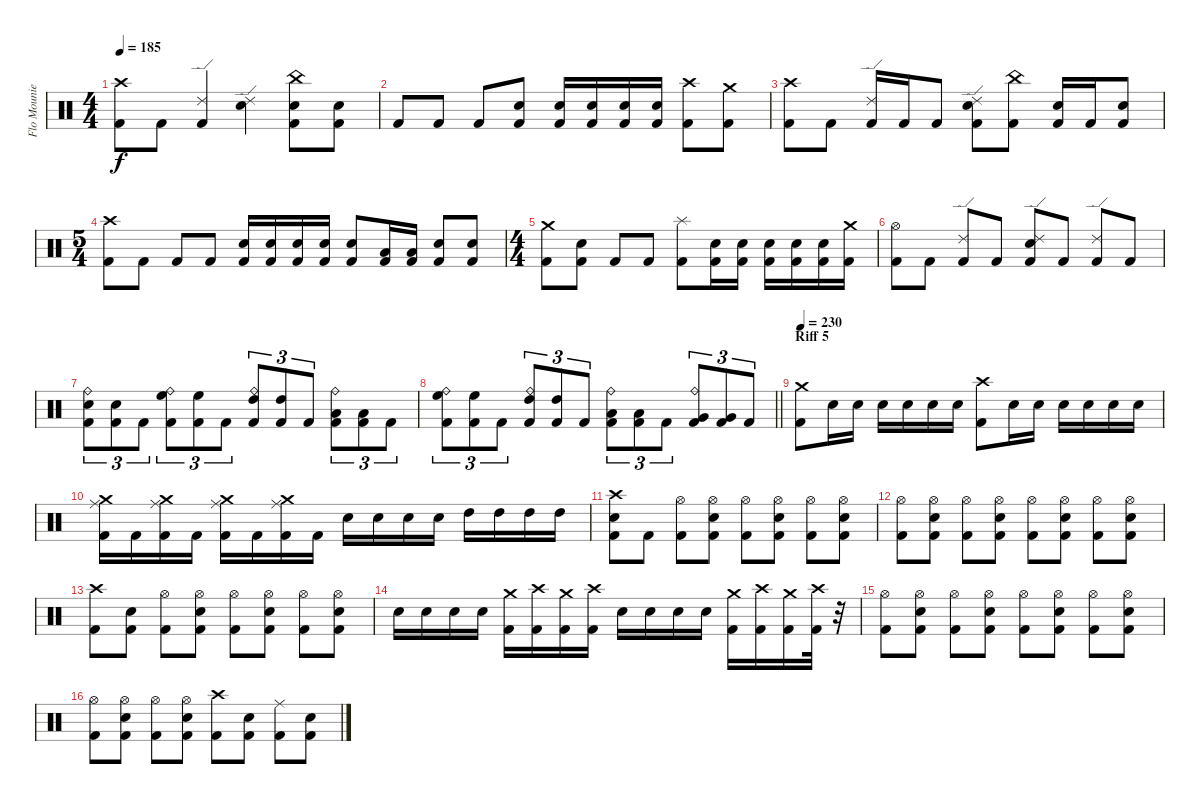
\track ("Flo Mounier" "Flo Mounie") {instrument percussion}
\staff {score}
\articulation defaults
\ts (4 4)
\tempo 185
\clef neutral
\ks c
("Crash high (hit)" "Kick (hit) 2").8{dy f} "Kick (hit) 2".8 ("Ride (edge) 2" "Kick (hit) 2").4 ("Ride (edge) 2" "Snare (hit) 2").4 ("China (hit)" "Snare (hit) 2" "Kick (hit) 2").8 ("Snare (hit) 2" "Kick (hit) 2").8 |
"Kick (hit) 2".8 "Kick (hit) 2".8 "Kick (hit) 2".8 ("Snare (hit) 2" "Kick (hit) 2").8 ("Snare (hit) 2" "Kick (hit) 2").16 ("Snare (hit) 2" "Kick (hit) 2").16 ("Snare (hit) 2" "Kick (hit) 2").16 ("Snare (hit) 2" "Kick (hit) 2").16 ("Crash high (hit)" "Kick (hit) 2").8 ("Crash medium (hit)" "Kick (hit) 2").8 |
("Crash high (hit)" "Kick (hit) 2").8 "Kick (hit) 2".8 ("Ride (edge) 2" "Kick (hit) 2").16 "Kick (hit) 2".16 "Kick (hit) 2".8 ("Ride (edge) 2" "Snare (hit) 2" "Kick (hit) 2").8 ("China (hit)" "Kick (hit) 2").8 ("Snare (hit) 2" "Kick (hit) 2").16 "Kick (hit) 2".16 ("Snare (hit) 2" "Kick (hit) 2").8 |
\ts (5 4)
("Crash high (hit)" "Kick (hit) 2").8 "Kick (hit) 2".8 "Kick (hit) 2".8 "Kick (hit) 2".8 ("Snare (hit) 2" "Kick (hit) 2").16 ("Snare (hit) 2" "Kick (hit) 2").16 ("Snare (hit) 2" "Kick (hit) 2").16 ("Snare (hit) 2" "Kick (hit) 2").16 ("Snare (hit) 2" "Kick (hit) 2").8 ("Low Tom (hit)" "Kick (hit) 2").16 ("Low Tom (hit)" "Kick (hit) 2").16 ("Snare (hit) 2" "Kick (hit) 2").8 ("Snare (hit) 2" "Kick (hit) 2").8 |
\ts (4 4)
("Crash medium (hit)" "Kick (hit) 2").8 ("Snare (hit) 2" "Kick (hit) 2").8 "Kick (hit) 2".8 "Kick (hit) 2".8 ("Splash (hit)" "Kick (hit) 2").8 ("Snare (hit) 2" "Kick (hit) 2").16 ("Snare (hit) 2" "Kick (hit) 2").16 ("Snare (hit) 2" "Kick (hit) 2").16 ("Snare (hit) 2" "Kick (hit) 2").16 ("Snare (hit) 2" "Kick (hit) 2").16 ("Crash medium (hit)" "Kick (hit) 2").16 |
("Hi-Hat (open)" "Kick (hit) 2").8 "Kick (hit) 2".8 ("Ride (edge) 2" "Kick (hit) 2").8 "Kick (hit) 2".8 ("Ride (edge) 2" "Snare (hit) 2" "Kick (hit) 2").8 "Kick (hit) 2".8 ("Ride (edge) 2" "Kick (hit) 2").8 "Kick (hit) 2".8 |
("Ride (bell)" "Snare (hit) 2" "Kick (hit) 2").8{tu (3 2)} ("Snare (hit) 2" "Kick (hit) 2").8{tu (3 2)} "Kick (hit) 2".8{tu (3 2)} ("Ride (bell)" "High Floor Tom (hit)" "Kick (hit) 2").8{tu (3 2)} ("High Floor Tom (hit)" "Kick (hit) 2").8{tu (3 2)} "Kick (hit) 2".8{tu (3 2)} ("Ride (bell)" "High Tom (hit)" "Kick (hit) 2").8{tu (3 2)} ("High Tom (hit)" "Kick (hit) 2").8{tu (3 2)} "Kick (hit) 2".8{tu (3 2)} ("Ride (bell)" "Low Tom (hit)" "Kick (hit) 2").8{tu (3 2)} ("Low Tom (hit)" "Kick (hit) 2").8{tu (3 2)} "Kick (hit) 2".8{tu (3 2)} |
\barLineRight lightlight
("Ride (bell)" "High Floor Tom (hit)" "Kick (hit) 2").8{tu (3 2)} ("High Floor Tom (hit)" "Kick (hit) 2").8{tu (3 2)} "Kick (hit) 2".8{tu (3 2)} ("Ride (bell)" "High Tom (hit)" "Kick (hit) 2").8{tu (3 2)} ("High Tom (hit)" "Kick (hit) 2").8{tu (3 2)} "Kick (hit) 2".8{tu (3 2)} ("Ride (bell)" "Low Tom (hit)" "Kick (hit) 2").8{tu (3 2)} ("Low Tom (hit)" "Kick (hit) 2").8{tu (3 2)} "Kick (hit) 2".8{tu (3 2)} ("Ride (bell)" "Very Low Tom (hit)" "Kick (hit) 2").8{tu (3 2)} ("Very Low Tom (hit)" "Kick (hit) 2").8{tu (3 2)} "Kick (hit) 2".8{tu (3 2)} |
\section ("" "Riff 5")
\tempo 230
("Crash medium (hit)" "Kick (hit) 2").8 "Snare (hit) 2".16 "Snare (hit) 2".16 "Snare (hit) 2".16 "Snare (hit) 2".16 "Snare (hit) 2".16 "Snare (hit) 2".16 ("Crash high (hit)" "Kick (hit) 2").8 "Snare (hit) 2".16 "Snare (hit) 2".16 "Snare (hit) 2".16 "Snare (hit) 2".16 "Snare (hit) 2".16 "Snare (hit) 2".16 |
("Crash medium (hit)" "Ride (middle)" "Kick (hit) 2").16 "Kick (hit) 2".16 ("Crash medium (hit)" "Ride (middle)" "Kick (hit) 2").16 "Kick (hit) 2".16 ("Crash medium (hit)" "Ride (middle)" "Kick (hit) 2").16 "Kick (hit) 2".16 ("Crash medium (hit)" "Ride (middle)" "Kick (hit) 2").16 "Kick (hit) 2".16 "Snare (hit) 2".16 "Snare (hit) 2".16 "Snare (hit) 2".16 "Snare (hit) 2".16 "High Tom (hit)".16 "High Tom (hit)".16 "High Tom (hit)".16 "High Tom (hit)".16 |
("Crash high (hit)" "Snare (hit) 2" "Kick (hit) 2").8 "Kick (hit) 2".8 ("Hi-Hat (open)" "Kick (hit) 2").8 ("Hi-Hat (open)" "Snare (hit) 2" "Kick (hit) 2").8 ("Hi-Hat (open)" "Kick (hit) 2").8 ("Hi-Hat (open)" "Snare (hit) 2" "Kick (hit) 2").8 ("Hi-Hat (open)" "Kick (hit) 2").8 ("Hi-Hat (open)" "Snare (hit) 2" "Kick (hit) 2").8 |
("Hi-Hat (open)" "Kick (hit) 2").8 ("Hi-Hat (open)" "Snare (hit) 2" "Kick (hit) 2").8 ("Hi-Hat (open)" "Kick (hit) 2").8 ("Hi-Hat (open)" "Snare (hit) 2" "Kick (hit) 2").8 ("Hi-Hat (open)" "Kick (hit) 2").8 ("Hi-Hat (open)" "Snare (hit) 2" "Kick (hit) 2").8 ("Hi-Hat (open)" "Kick (hit) 2").8 ("Hi-Hat (open)" "Snare (hit) 2" "Kick (hit) 2").8 |
("Crash high (hit)" "Kick (hit) 2").8 ("Snare (hit) 2" "Kick (hit) 2").8 ("Hi-Hat (open)" "Kick (hit) 2").8 ("Hi-Hat (open)" "Snare (hit) 2" "Kick (hit) 2").8 ("Hi-Hat (open)" "Kick (hit) 2").8 ("Hi-Hat (open)" "Snare (hit) 2" "Kick (hit) 2").8 ("Hi-Hat (open)" "Kick (hit) 2").8 ("Hi-Hat (open)" "Snare (hit) 2" "Kick (hit) 2").8 |
"Snare (hit) 2".16 "Snare (hit) 2".16 "Snare (hit) 2".16 "Snare (hit) 2".16 ("Crash medium (hit)" "Kick (hit) 2").16 ("Crash high (hit)" "Kick (hit) 2").16 ("Crash medium (hit)" "Kick (hit) 2").16 ("Crash high (hit)" "Kick (hit) 2").16 "Snare (hit) 2".16 "Snare (hit) 2".16 "Snare (hit) 2".16 "Snare (hit) 2".16 ("Crash medium (hit)" "Kick (hit) 2").16 ("Crash high (hit)" "Kick (hit) 2").16 ("Crash medium (hit)" "Kick (hit) 2").16 ("Crash high (hit)" "Kick (hit) 2").32 r.32 |
("Hi-Hat (open)" "Kick (hit) 2").8 ("Hi-Hat (open)" "Snare (hit) 2" "Kick (hit) 2").8 ("Hi-Hat (open)" "Kick (hit) 2").8 ("Hi-Hat (open)" "Snare (hit) 2" "Kick (hit) 2").8 ("Hi-Hat (open)" "Kick (hit) 2").8 ("Hi-Hat (open)" "Snare (hit) 2" "Kick (hit) 2").8 ("Hi-Hat (open)" "Kick (hit) 2").8 ("Hi-Hat (open)" "Snare (hit) 2" "Kick (hit) 2").8 |
("Hi-Hat (open)" "Kick (hit) 2").8 ("Hi-Hat (open)" "Snare (hit) 2" "Kick (hit) 2").8 ("Hi-Hat (open)" "Kick (hit) 2").8 ("Hi-Hat (open)" "Snare (hit) 2" "Kick (hit) 2").8 ("Crash high (hit)" "Kick (hit) 2").8 ("Snare (hit) 2" "Kick (hit) 2").8 ("Ride (middle)" "Kick (hit) 2").8 ("Snare (hit) 2" "Kick (hit) 2").8
